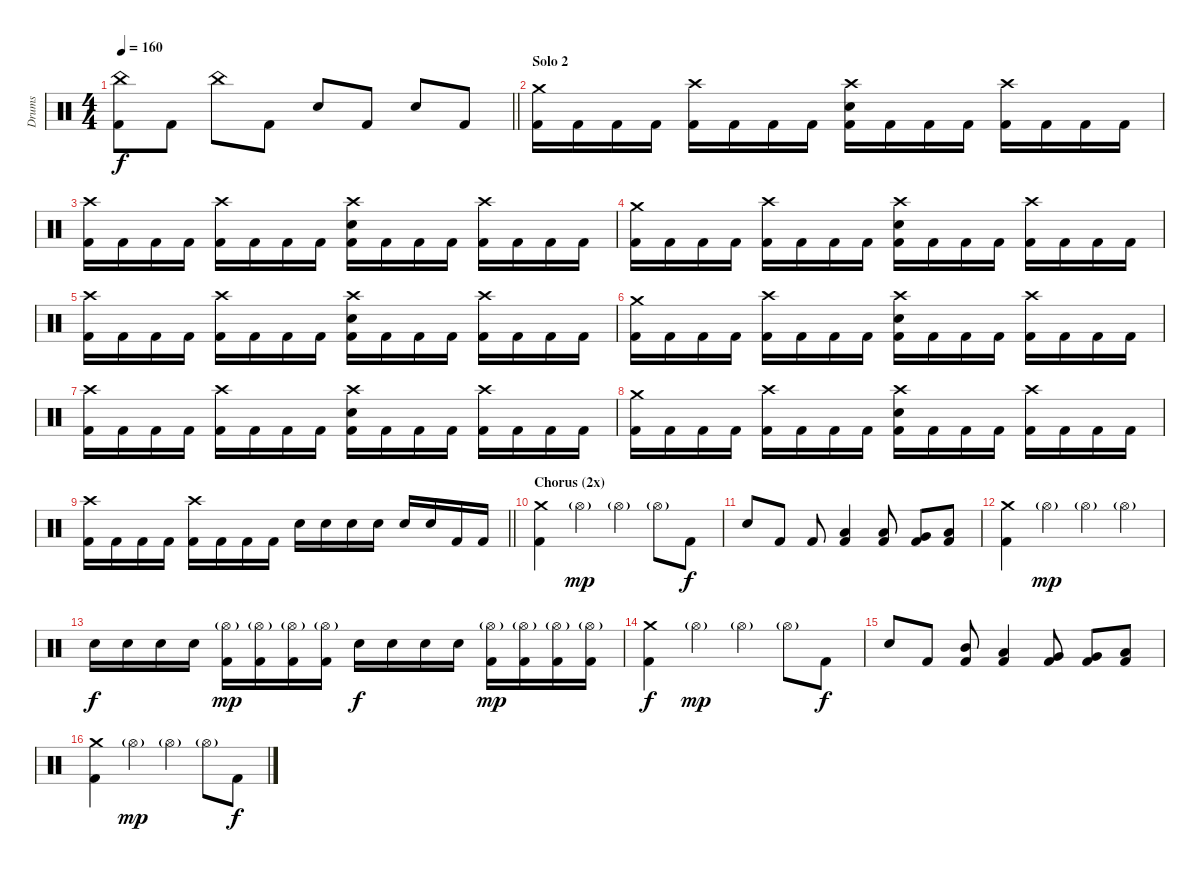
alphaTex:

\track ("Drums" "Drums") {instrument percussion}
\staff {score}
\articulation defaults
\ts (4 4)
\tempo 160
\clef neutral
\barLineRight lightlight
\ks c
("China (hit)" "Kick (hit) 2").8{dy f} "Kick (hit) 2".8 "China (hit)".8 "Kick (hit) 2".8 "Electric Snare (hit)".8 "Kick (hit) 2".8 "Electric Snare (hit)".8 "Kick (hit) 2".8 |
\section ("" "Solo 2")
("Crash medium (hit)" "Kick (hit) 2").16 "Kick (hit) 2".16 "Kick (hit) 2".16 "Kick (hit) 2".16 ("Crash high (hit)" "Kick (hit) 2").16 "Kick (hit) 2".16 "Kick (hit) 2".16 "Kick (hit) 2".16 ("Crash high (hit)" "Electric Snare (hit)" "Kick (hit) 2").16 "Kick (hit) 2".16 "Kick (hit) 2".16 "Kick (hit) 2".16 ("Crash high (hit)" "Kick (hit) 2").16 "Kick (hit) 2".16 "Kick (hit) 2".16 "Kick (hit) 2".16 |
("Crash high (hit)" "Kick (hit) 2").16 "Kick (hit) 2".16 "Kick (hit) 2".16 "Kick (hit) 2".16 ("Crash high (hit)" "Kick (hit) 2").16 "Kick (hit) 2".16 "Kick (hit) 2".16 "Kick (hit) 2".16 ("Crash high (hit)" "Electric Snare (hit)" "Kick (hit) 2").16 "Kick (hit) 2".16 "Kick (hit) 2".16 "Kick (hit) 2".16 ("Crash high (hit)" "Kick (hit) 2").16 "Kick (hit) 2".16 "Kick (hit) 2".16 "Kick (hit) 2".16 |
("Crash medium (hit)" "Kick (hit) 2").16 "Kick (hit) 2".16 "Kick (hit) 2".16 "Kick (hit) 2".16 ("Crash high (hit)" "Kick (hit) 2").16 "Kick (hit) 2".16 "Kick (hit) 2".16 "Kick (hit) 2".16 ("Crash high (hit)" "Electric Snare (hit)" "Kick (hit) 2").16 "Kick (hit) 2".16 "Kick (hit) 2".16 "Kick (hit) 2".16 ("Crash high (hit)" "Kick (hit) 2").16 "Kick (hit) 2".16 "Kick (hit) 2".16 "Kick (hit) 2".16 |
("Crash high (hit)" "Kick (hit) 2").16 "Kick (hit) 2".16 "Kick (hit) 2".16 "Kick (hit) 2".16 ("Crash high (hit)" "Kick (hit) 2").16 "Kick (hit) 2".16 "Kick (hit) 2".16 "Kick (hit) 2".16 ("Crash high (hit)" "Electric Snare (hit)" "Kick (hit) 2").16 "Kick (hit) 2".16 "Kick (hit) 2".16 "Kick (hit) 2".16 ("Crash high (hit)" "Kick (hit) 2").16 "Kick (hit) 2".16 "Kick (hit) 2".16 "Kick (hit) 2".16 |
("Crash medium (hit)" "Kick (hit) 2").16 "Kick (hit) 2".16 "Kick (hit) 2".16 "Kick (hit) 2".16 ("Crash high (hit)" "Kick (hit) 2").16 "Kick (hit) 2".16 "Kick (hit) 2".16 "Kick (hit) 2".16 ("Crash high (hit)" "Electric Snare (hit)" "Kick (hit) 2").16 "Kick (hit) 2".16 "Kick (hit) 2".16 "Kick (hit) 2".16 ("Crash high (hit)" "Kick (hit) 2").16 "Kick (hit) 2".16 "Kick (hit) 2".16 "Kick (hit) 2".16 |
("Crash high (hit)" "Kick (hit) 2").16 "Kick (hit) 2".16 "Kick (hit) 2".16 "Kick (hit) 2".16 ("Crash high (hit)" "Kick (hit) 2").16 "Kick (hit) 2".16 "Kick (hit) 2".16 "Kick (hit) 2".16 ("Crash high (hit)" "Electric Snare (hit)" "Kick (hit) 2").16 "Kick (hit) 2".16 "Kick (hit) 2".16 "Kick (hit) 2".16 ("Crash high (hit)" "Kick (hit) 2").16 "Kick (hit) 2".16 "Kick (hit) 2".16 "Kick (hit) 2".16 |
("Crash medium (hit)" "Kick (hit) 2").16 "Kick (hit) 2".16 "Kick (hit) 2".16 "Kick (hit) 2".16 ("Crash high (hit)" "Kick (hit) 2").16 "Kick (hit) 2".16 "Kick (hit) 2".16 "Kick (hit) 2".16 ("Crash high (hit)" "Electric Snare (hit)" "Kick (hit) 2").16 "Kick (hit) 2".16 "Kick (hit) 2".16 "Kick (hit) 2".16 ("Crash high (hit)" "Kick (hit) 2").16 "Kick (hit) 2".16 "Kick (hit) 2".16 "Kick (hit) 2".16 |
\barLineRight lightlight
("Crash high (hit)" "Kick (hit) 2").16 "Kick (hit) 2".16 "Kick (hit) 2".16 "Kick (hit) 2".16 ("Crash high (hit)" "Kick (hit) 2").16 "Kick (hit) 2".16 "Kick (hit) 2".16 "Kick (hit) 2".16 "Electric Snare (hit)".16 "Electric Snare (hit)".16 "Electric Snare (hit)".16 "Electric Snare (hit)".16 "Electric Snare (hit)".16 "Electric Snare (hit)".16 "Kick (hit) 2".16 "Kick (hit) 2".16 |
\section ("" "Chorus (2x)")
("Crash medium (hit)" "Kick (hit) 2").4 "Hi-Hat (open)"{g}.4{dy mp} "Hi-Hat (open)"{g}.4 "Hi-Hat (open)"{g}.8 "Kick (hit) 2".8{dy f} |
"Electric Snare (hit)".8 "Kick (hit) 2".8 "Kick (hit) 2".8 ("Low Tom (hit)" "Kick (hit) 2").4 ("Low Tom (hit)" "Kick (hit) 2").8 ("Very Low Tom (hit)" "Kick (hit) 2").8 ("Low Floor Tom (hit)" "Kick (hit) 2").8 |
("Crash medium (hit)" "Kick (hit) 2").4 "Hi-Hat (open)"{g}.4{dy mp} "Hi-Hat (open)"{g}.4 "Hi-Hat (open)"{g}.4 |
"Electric Snare (hit)".16{dy f} "Electric Snare (hit)".16 "Electric Snare (hit)".16 "Electric Snare (hit)".16 ("Hi-Hat (open)"{g} "Kick (hit) 2").16{dy mp} ("Hi-Hat (open)"{g} "Kick (hit) 2").16 ("Hi-Hat (open)"{g} "Kick (hit) 2").16 ("Hi-Hat (open)"{g} "Kick (hit) 2").16 "Electric Snare (hit)".16{dy f} "Electric Snare (hit)".16 "Electric Snare (hit)".16 "Electric Snare (hit)".16 ("Hi-Hat (open)"{g} "Kick (hit) 2").16{dy mp} ("Hi-Hat (open)"{g} "Kick (hit) 2").16 ("Hi-Hat (open)"{g} "Kick (hit) 2").16 ("Hi-Hat (open)"{g} "Kick (hit) 2").16 |
("Crash medium (hit)" "Kick (hit) 2").4{dy f} "Hi-Hat (open)"{g}.4{dy mp} "Hi-Hat (open)"{g}.4 "Hi-Hat (open)"{g}.8 "Kick (hit) 2".8{dy f} |
"Electric Snare (hit)".8 "Kick (hit) 2".8 ("Mid Tom (hit)" "Kick (hit) 2").8 ("Low Tom (hit)" "Kick (hit) 2").4 ("Very Low Tom (hit)" "Kick (hit) 2").8 ("Very Low Tom (hit)" "Kick (hit) 2").8 ("Low Floor Tom (hit)" "Kick (hit) 2").8 |
("Crash medium (hit)" "Kick (hit) 2").4 "Hi-Hat (open)"{g}.4{dy mp} "Hi-Hat (open)"{g}.4 "Hi-Hat (open)"{g}.8 "Kick (hit) 2".8{dy f}
